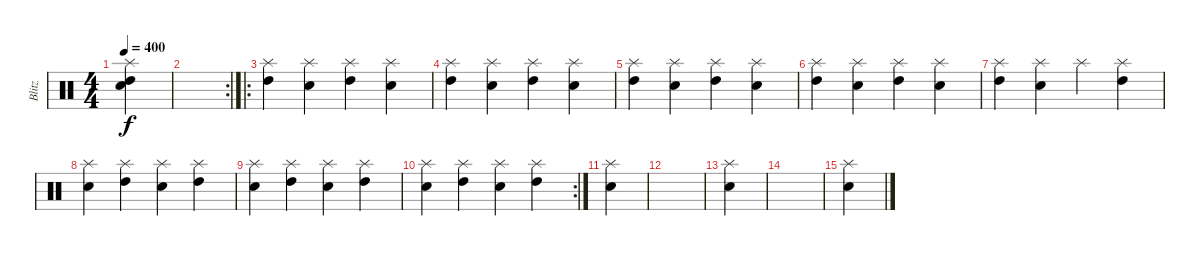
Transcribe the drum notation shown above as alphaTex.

\track ("Blitz" "Blitz") {instrument percussion}
\staff {score}
\articulation defaults
\ts (4 4)
\tempo 400
\clef neutral
\ks c
("Splash (hit)" "Electric Snare (hit)" "High Tom (hit)").4{dy f} |
\rc 2
|
\ro
("Splash (hit)" "High Tom (hit)").4 ("Splash (hit)" "Electric Snare (hit)").4 ("Splash (hit)" "High Tom (hit)").4 ("Splash (hit)" "Electric Snare (hit)").4 |
("Splash (hit)" "High Tom (hit)").4 ("Splash (hit)" "Electric Snare (hit)").4 ("Splash (hit)" "High Tom (hit)").4 ("Splash (hit)" "Electric Snare (hit)").4 |
("Splash (hit)" "High Tom (hit)").4 ("Splash (hit)" "Electric Snare (hit)").4 ("Splash (hit)" "High Tom (hit)").4 ("Splash (hit)" "Electric Snare (hit)").4 |
("Splash (hit)" "High Tom (hit)").4 ("Splash (hit)" "Electric Snare (hit)").4 ("Splash (hit)" "High Tom (hit)").4 ("Splash (hit)" "Electric Snare (hit)").4 |
("Splash (hit)" "High Tom (hit)").4 ("Splash (hit)" "Electric Snare (hit)").4 "Splash (hit)".4 ("Splash (hit)" "High Tom (hit)").4 |
("Splash (hit)" "Electric Snare (hit)").4 ("Splash (hit)" "High Tom (hit)").4 ("Splash (hit)" "Electric Snare (hit)").4 ("Splash (hit)" "High Tom (hit)").4 |
("Splash (hit)" "Electric Snare (hit)").4 ("Splash (hit)" "High Tom (hit)").4 ("Splash (hit)" "Electric Snare (hit)").4 ("Splash (hit)" "High Tom (hit)").4 |
\rc 2
("Splash (hit)" "Electric Snare (hit)").4 ("Splash (hit)" "High Tom (hit)").4 ("Splash (hit)" "Electric Snare (hit)").4 ("Splash (hit)" "High Tom (hit)").4 |
("Splash (hit)" "Electric Snare (hit)").4 |
|
("Splash (hit)" "Electric Snare (hit)").4 |
|
("Splash (hit)" "Electric Snare (hit)").4
